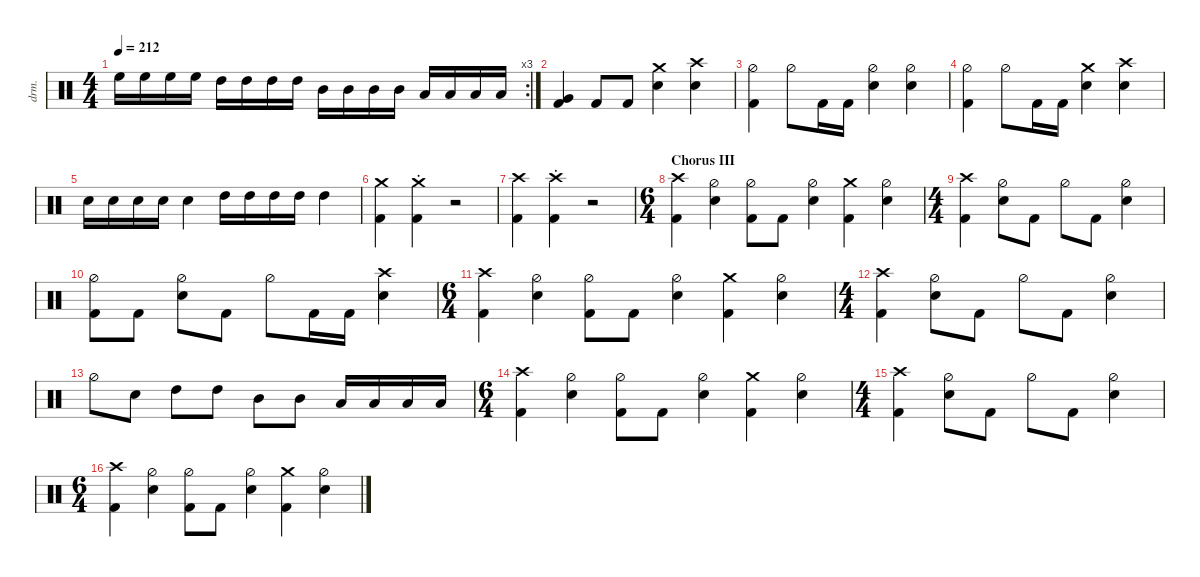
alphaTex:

\defaultSystemsLayout 4
\hideDynamics
\bracketExtendMode nobrackets
\track ("Drums" "drm.") {defaultSystemsLayout 4 multiBarRest instrument percussion}
\staff
\articulation defaults
\rc 3
\ts (4 4)
\tempo 212
\clef neutral
\ks c "High Floor Tom (hit)".16{dy fff} "High Floor Tom (hit)".16 "High Floor Tom (hit)".16 "High Floor Tom (hit)".16 "High Tom (hit)".16 "High Tom (hit)".16 "High Tom (hit)".16 "High Tom (hit)".16 "Mid Tom (hit)".16 "Mid Tom (hit)".16 "Mid Tom (hit)".16 "Mid Tom (hit)".16 "Low Tom (hit)".16 "Low Tom (hit)".16 "Low Tom (hit)".16 "Low Tom (hit)".16
|
("Kick (hit) 2" "Very Low Tom (hit)").4{dy f} "Kick (hit) 2".8 "Kick (hit) 2".8 ("Snare (hit) 2" "Crash medium (hit)").4 ("Snare (hit) 2" "Crash high (hit)").4 |
("Hi-Hat (half)" "Kick (hit) 2").4 "Hi-Hat (half)".8 "Kick (hit) 2".16 "Kick (hit) 2".16 ("Snare (hit) 2" "Hi-Hat (half)").4 ("Snare (hit) 2" "Hi-Hat (half)").4 |
("Hi-Hat (half)" "Kick (hit) 2").4 "Hi-Hat (half)".8 "Kick (hit) 2".16 "Kick (hit) 2".16 ("Snare (hit) 2" "Crash medium (hit)").4 ("Snare (hit) 2" "Crash high (hit)").4 |
"Snare (hit) 2".16 "Snare (hit) 2".16{dy mf} "Snare (hit) 2".16 "Snare (hit) 2".16 "Snare (hit) 2".4{dy f} "High Tom (hit)".16{dy ff} "High Tom (hit)".16{dy f} "High Tom (hit)".16 "High Tom (hit)".16 "High Tom (hit)".4{dy ff} |
("Kick (hit) 2" "Crash medium (hit)").4 ("Kick (hit) 2" "Crash medium (hit)"{st}).4 r.2 |
("Kick (hit) 2" "Crash high (hit)").4 ("Kick (hit) 2" "Crash high (hit)"{st}).4 r.2 |
\ts (6 4)
\beaming (8 6 6)
\section ("" "Chorus III")
("Crash high (hit)" "Kick (hit) 2").4{dy f} ("Hi-Hat (half)" "Snare (hit) 2").4 ("Hi-Hat (half)" "Kick (hit) 2").8 "Kick (hit) 2".8 ("Hi-Hat (half)" "Snare (hit) 2").4 ("Kick (hit) 2" "Crash medium (hit)").4 ("Hi-Hat (half)" "Snare (hit) 2").4 |
\ts (4 4)
\beaming (8 2 2 2 2)
("Crash high (hit)" "Kick (hit) 2").4 ("Hi-Hat (half)" "Snare (hit) 2").8 "Kick (hit) 2".8 "Hi-Hat (half)".8 "Kick (hit) 2".8 ("Hi-Hat (half)" "Snare (hit) 2").4 |
("Hi-Hat (half)" "Kick (hit) 2").8 "Kick (hit) 2".8 ("Hi-Hat (half)" "Snare (hit) 2").8 "Kick (hit) 2".8 "Hi-Hat (half)".8 "Kick (hit) 2".16 "Kick (hit) 2".16 ("Snare (hit) 2" "Crash high (hit)").4 |
\ts (6 4)
\beaming (8 6 6)
("Crash high (hit)" "Kick (hit) 2").4 ("Hi-Hat (half)" "Snare (hit) 2").4 ("Hi-Hat (half)" "Kick (hit) 2").8 "Kick (hit) 2".8 ("Hi-Hat (half)" "Snare (hit) 2").4 ("Kick (hit) 2" "Crash medium (hit)").4 ("Hi-Hat (half)" "Snare (hit) 2").4 |
\ts (4 4)
\beaming (8 2 2 2 2)
("Crash high (hit)" "Kick (hit) 2").4 ("Hi-Hat (half)" "Snare (hit) 2").8 "Kick (hit) 2".8 "Hi-Hat (half)".8 "Kick (hit) 2".8 ("Hi-Hat (half)" "Snare (hit) 2").4 |
"Hi-Hat (half)".8 "Snare (hit) 2".8 "High Tom (hit)".8{dy ff} "High Tom (hit)".8 "Mid Tom (hit)".8 "Mid Tom (hit)".8 "Low Tom (hit)".16 "Low Tom (hit)".16 "Low Tom (hit)".16 "Low Tom (hit)".16 |
\ts (6 4)
\beaming (8 6 6)
("Crash high (hit)" "Kick (hit) 2").4{dy f} ("Hi-Hat (half)" "Snare (hit) 2").4 ("Hi-Hat (half)" "Kick (hit) 2").8 "Kick (hit) 2".8 ("Hi-Hat (half)" "Snare (hit) 2").4 ("Kick (hit) 2" "Crash medium (hit)").4 ("Hi-Hat (half)" "Snare (hit) 2").4 |
\ts (4 4)
\beaming (8 2 2 2 2)
("Crash high (hit)" "Kick (hit) 2").4 ("Hi-Hat (half)" "Snare (hit) 2").8 "Kick (hit) 2".8 "Hi-Hat (half)".8 "Kick (hit) 2".8 ("Hi-Hat (half)" "Snare (hit) 2").4 |
\ts (6 4)
\beaming (8 6 6)
("Crash high (hit)" "Kick (hit) 2").4 ("Hi-Hat (half)" "Snare (hit) 2").4 ("Hi-Hat (half)" "Kick (hit) 2").8 "Kick (hit) 2".8 ("Hi-Hat (half)" "Snare (hit) 2").4 ("Kick (hit) 2" "Crash medium (hit)").4 ("Hi-Hat (half)" "Snare (hit) 2").4
